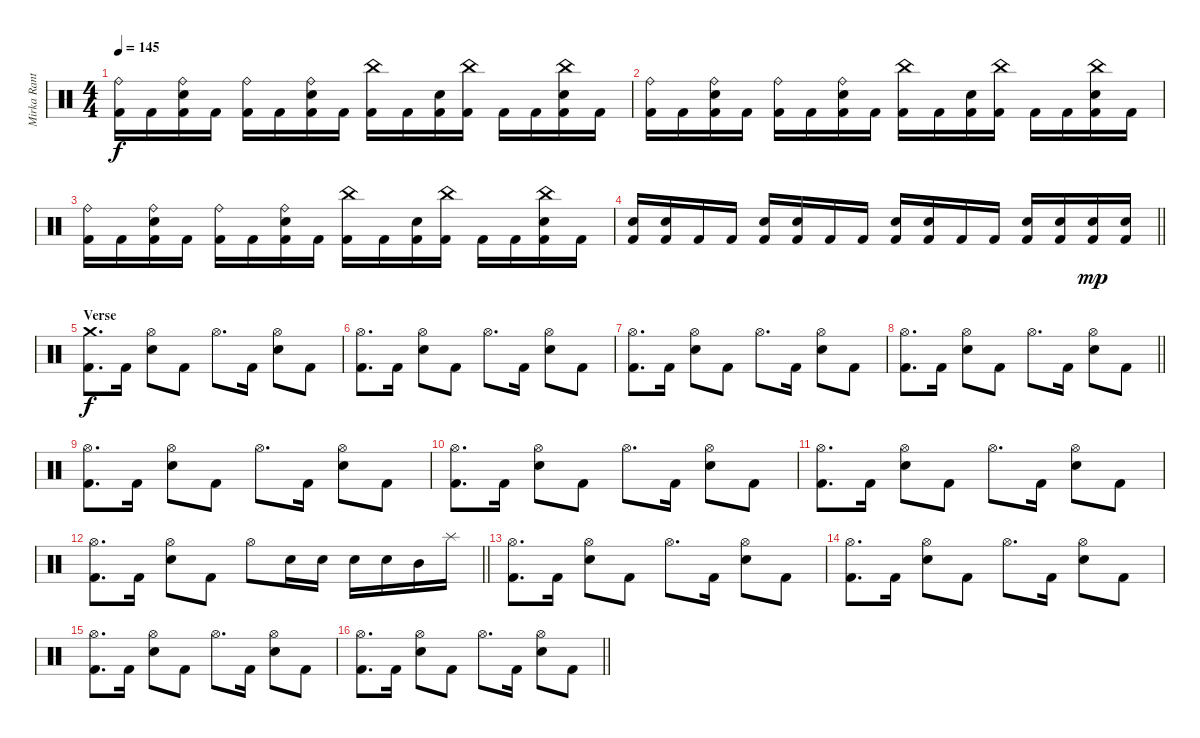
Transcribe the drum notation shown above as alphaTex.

\track ("Mirka Rantanen" "Mirka Rant") {instrument percussion}
\staff {score}
\articulation defaults
\ts (4 4)
\tempo 145
\clef neutral
\ks c
("Ride (bell)" "Kick (hit) 2").16{dy f} "Kick (hit) 2".16 ("Ride (bell)" "Electric Snare (hit)" "Kick (hit) 2").16 "Kick (hit) 2".16 ("Ride (bell)" "Kick (hit) 2").16 "Kick (hit) 2".16 ("Ride (bell)" "Electric Snare (hit)" "Kick (hit) 2").16 "Kick (hit) 2".16 ("China (hit)" "Kick (hit) 2").16 "Kick (hit) 2".16 ("Electric Snare (hit)" "Kick (hit) 2").16 ("China (hit)" "Kick (hit) 2").16 "Kick (hit) 2".16 "Kick (hit) 2".16 ("China (hit)" "Electric Snare (hit)" "Kick (hit) 2").16 "Kick (hit) 2".16 |
("Ride (bell)" "Kick (hit) 2").16 "Kick (hit) 2".16 ("Ride (bell)" "Electric Snare (hit)" "Kick (hit) 2").16 "Kick (hit) 2".16 ("Ride (bell)" "Kick (hit) 2").16 "Kick (hit) 2".16 ("Ride (bell)" "Electric Snare (hit)" "Kick (hit) 2").16 "Kick (hit) 2".16 ("China (hit)" "Kick (hit) 2").16 "Kick (hit) 2".16 ("Electric Snare (hit)" "Kick (hit) 2").16 ("China (hit)" "Kick (hit) 2").16 "Kick (hit) 2".16 "Kick (hit) 2".16 ("China (hit)" "Electric Snare (hit)" "Kick (hit) 2").16 "Kick (hit) 2".16 |
("Ride (bell)" "Kick (hit) 2").16 "Kick (hit) 2".16 ("Ride (bell)" "Electric Snare (hit)" "Kick (hit) 2").16 "Kick (hit) 2".16 ("Ride (bell)" "Kick (hit) 2").16 "Kick (hit) 2".16 ("Ride (bell)" "Electric Snare (hit)" "Kick (hit) 2").16 "Kick (hit) 2".16 ("China (hit)" "Kick (hit) 2").16 "Kick (hit) 2".16 ("Electric Snare (hit)" "Kick (hit) 2").16 ("China (hit)" "Kick (hit) 2").16 "Kick (hit) 2".16 "Kick (hit) 2".16 ("China (hit)" "Electric Snare (hit)" "Kick (hit) 2").16 "Kick (hit) 2".16 |
\barLineRight lightlight
("Electric Snare (hit)" "Kick (hit) 2").16 ("Electric Snare (hit)" "Kick (hit) 2").16 "Kick (hit) 2".16 "Kick (hit) 2".16 ("Electric Snare (hit)" "Kick (hit) 2").16 ("Electric Snare (hit)" "Kick (hit) 2").16 "Kick (hit) 2".16 "Kick (hit) 2".16 ("Electric Snare (hit)" "Kick (hit) 2").16 ("Electric Snare (hit)" "Kick (hit) 2").16 "Kick (hit) 2".16 "Kick (hit) 2".16 ("Electric Snare (hit)" "Kick (hit) 2").16 ("Electric Snare (hit)" "Kick (hit) 2").16 ("Electric Snare (hit)" "Kick (hit) 2").16{dy mp} ("Electric Snare (hit)" "Kick (hit) 2").16 |
\section ("" "Verse")
("Crash medium (hit)" "Kick (hit) 2").8{d dy f} "Kick (hit) 2".16 ("Hi-Hat (open)" "Electric Snare (hit)").8 "Kick (hit) 2".8 "Hi-Hat (open)".8{d} "Kick (hit) 2".16 ("Hi-Hat (open)" "Electric Snare (hit)").8 "Kick (hit) 2".8 |
("Hi-Hat (open)" "Kick (hit) 2").8{d} "Kick (hit) 2".16 ("Hi-Hat (open)" "Electric Snare (hit)").8 "Kick (hit) 2".8 "Hi-Hat (open)".8{d} "Kick (hit) 2".16 ("Hi-Hat (open)" "Electric Snare (hit)").8 "Kick (hit) 2".8 |
("Hi-Hat (open)" "Kick (hit) 2").8{d} "Kick (hit) 2".16 ("Hi-Hat (open)" "Electric Snare (hit)").8 "Kick (hit) 2".8 "Hi-Hat (open)".8{d} "Kick (hit) 2".16 ("Hi-Hat (open)" "Electric Snare (hit)").8 "Kick (hit) 2".8 |
\barLineRight lightlight
("Hi-Hat (open)" "Kick (hit) 2").8{d} "Kick (hit) 2".16 ("Hi-Hat (open)" "Electric Snare (hit)").8 "Kick (hit) 2".8 "Hi-Hat (open)".8{d} "Kick (hit) 2".16 ("Hi-Hat (open)" "Electric Snare (hit)").8 "Kick (hit) 2".8 |
("Hi-Hat (open)" "Kick (hit) 2").8{d} "Kick (hit) 2".16 ("Hi-Hat (open)" "Electric Snare (hit)").8 "Kick (hit) 2".8 "Hi-Hat (open)".8{d} "Kick (hit) 2".16 ("Hi-Hat (open)" "Electric Snare (hit)").8 "Kick (hit) 2".8 |
("Hi-Hat (open)" "Kick (hit) 2").8{d} "Kick (hit) 2".16 ("Hi-Hat (open)" "Electric Snare (hit)").8 "Kick (hit) 2".8 "Hi-Hat (open)".8{d} "Kick (hit) 2".16 ("Hi-Hat (open)" "Electric Snare (hit)").8 "Kick (hit) 2".8 |
("Hi-Hat (open)" "Kick (hit) 2").8{d} "Kick (hit) 2".16 ("Hi-Hat (open)" "Electric Snare (hit)").8 "Kick (hit) 2".8 "Hi-Hat (open)".8{d} "Kick (hit) 2".16 ("Hi-Hat (open)" "Electric Snare (hit)").8 "Kick (hit) 2".8 |
\barLineRight lightlight
("Hi-Hat (open)" "Kick (hit) 2").8{d} "Kick (hit) 2".16 ("Hi-Hat (open)" "Electric Snare (hit)").8 "Kick (hit) 2".8 "Hi-Hat (open)".8 "Electric Snare (hit)".16 "Electric Snare (hit)".16 "Electric Snare (hit)".16 "Electric Snare (hit)".16 "Mid Tom (hit)".16 "Splash (hit)".16 |
("Hi-Hat (open)" "Kick (hit) 2").8{d} "Kick (hit) 2".16 ("Hi-Hat (open)" "Electric Snare (hit)").8 "Kick (hit) 2".8 "Hi-Hat (open)".8{d} "Kick (hit) 2".16 ("Hi-Hat (open)" "Electric Snare (hit)").8 "Kick (hit) 2".8 |
("Hi-Hat (open)" "Kick (hit) 2").8{d} "Kick (hit) 2".16 ("Hi-Hat (open)" "Electric Snare (hit)").8 "Kick (hit) 2".8 "Hi-Hat (open)".8{d} "Kick (hit) 2".16 ("Hi-Hat (open)" "Electric Snare (hit)").8 "Kick (hit) 2".8 |
("Hi-Hat (open)" "Kick (hit) 2").8{d} "Kick (hit) 2".16 ("Hi-Hat (open)" "Electric Snare (hit)").8 "Kick (hit) 2".8 "Hi-Hat (open)".8{d} "Kick (hit) 2".16 ("Hi-Hat (open)" "Electric Snare (hit)").8 "Kick (hit) 2".8 |
\barLineRight lightlight
("Hi-Hat (open)" "Kick (hit) 2").8{d} "Kick (hit) 2".16 ("Hi-Hat (open)" "Electric Snare (hit)").8 "Kick (hit) 2".8 "Hi-Hat (open)".8{d} "Kick (hit) 2".16 ("Hi-Hat (open)" "Electric Snare (hit)").8 "Kick (hit) 2".8
